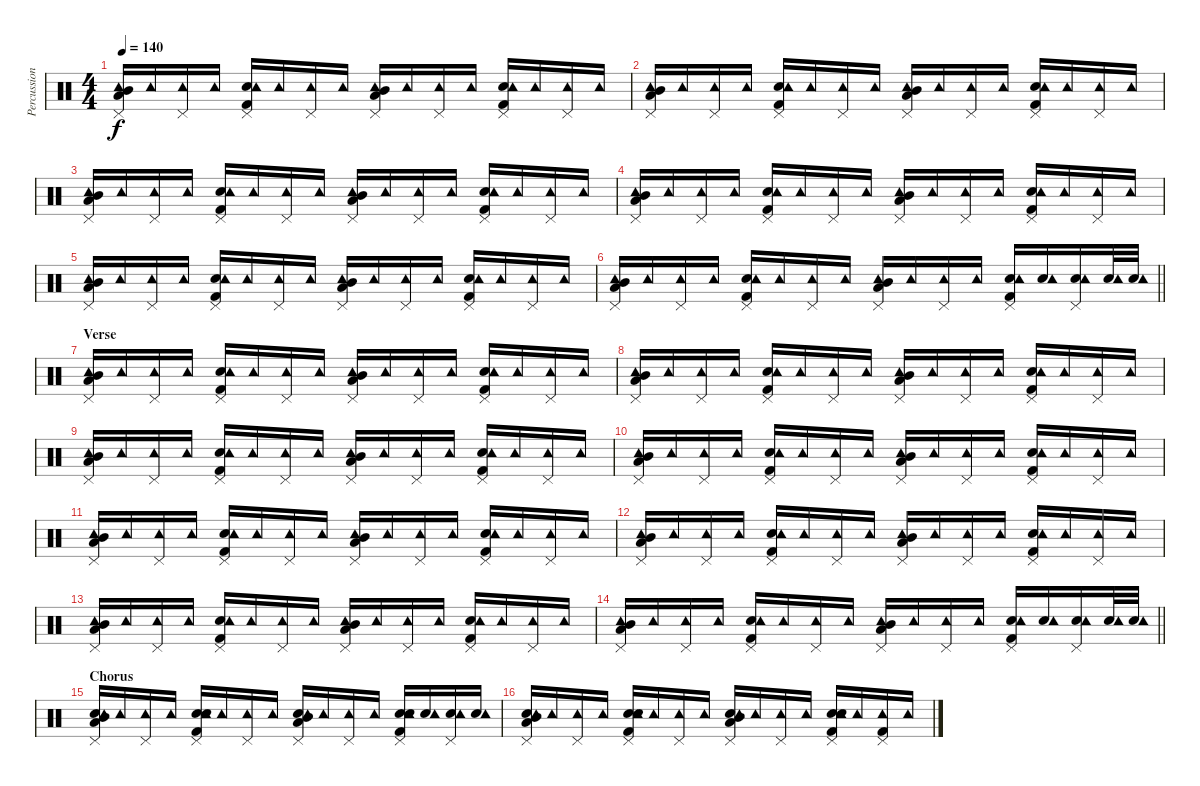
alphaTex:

\track ("Percussion" "Percussion") {instrument percussion}
\staff {score}
\articulation defaults
\ts (4 4)
\tempo 140
\clef neutral
\ks c
("Low Tom (hit)" "Mid Tom (hit)" "Pedal Hi-Hat (hit)" "Tambourine (hit)").16{dy f} "Tambourine (hit)".16 ("Pedal Hi-Hat (hit)" "Tambourine (hit)").16 "Tambourine (hit)".16 ("Snare (hit) 2" "Kick (hit) 2" "Pedal Hi-Hat (hit)" "Tambourine (hit)").16 "Tambourine (hit)".16 ("Pedal Hi-Hat (hit)" "Tambourine (hit)").16 "Tambourine (hit)".16 ("Low Tom (hit)" "Mid Tom (hit)" "Pedal Hi-Hat (hit)" "Tambourine (hit)").16 "Tambourine (hit)".16 ("Pedal Hi-Hat (hit)" "Tambourine (hit)").16 "Tambourine (hit)".16 ("Snare (hit) 2" "Kick (hit) 2" "Pedal Hi-Hat (hit)" "Tambourine (hit)").16 "Tambourine (hit)".16 ("Pedal Hi-Hat (hit)" "Tambourine (hit)").16 "Tambourine (hit)".16 |
("Low Tom (hit)" "Mid Tom (hit)" "Pedal Hi-Hat (hit)" "Tambourine (hit)").16 "Tambourine (hit)".16 ("Pedal Hi-Hat (hit)" "Tambourine (hit)").16 "Tambourine (hit)".16 ("Snare (hit) 2" "Kick (hit) 2" "Pedal Hi-Hat (hit)" "Tambourine (hit)").16 "Tambourine (hit)".16 ("Pedal Hi-Hat (hit)" "Tambourine (hit)").16 "Tambourine (hit)".16 ("Low Tom (hit)" "Mid Tom (hit)" "Pedal Hi-Hat (hit)" "Tambourine (hit)").16 "Tambourine (hit)".16 ("Pedal Hi-Hat (hit)" "Tambourine (hit)").16 "Tambourine (hit)".16 ("Snare (hit) 2" "Kick (hit) 2" "Pedal Hi-Hat (hit)" "Tambourine (hit)").16 "Tambourine (hit)".16 ("Pedal Hi-Hat (hit)" "Tambourine (hit)").16 "Tambourine (hit)".16 |
("Low Tom (hit)" "Mid Tom (hit)" "Pedal Hi-Hat (hit)" "Tambourine (hit)").16 "Tambourine (hit)".16 ("Pedal Hi-Hat (hit)" "Tambourine (hit)").16 "Tambourine (hit)".16 ("Snare (hit) 2" "Kick (hit) 2" "Pedal Hi-Hat (hit)" "Tambourine (hit)").16 "Tambourine (hit)".16 ("Pedal Hi-Hat (hit)" "Tambourine (hit)").16 "Tambourine (hit)".16 ("Low Tom (hit)" "Mid Tom (hit)" "Pedal Hi-Hat (hit)" "Tambourine (hit)").16 "Tambourine (hit)".16 ("Pedal Hi-Hat (hit)" "Tambourine (hit)").16 "Tambourine (hit)".16 ("Snare (hit) 2" "Kick (hit) 2" "Pedal Hi-Hat (hit)" "Tambourine (hit)").16 "Tambourine (hit)".16 ("Pedal Hi-Hat (hit)" "Tambourine (hit)").16 "Tambourine (hit)".16 |
("Low Tom (hit)" "Mid Tom (hit)" "Pedal Hi-Hat (hit)" "Tambourine (hit)").16 "Tambourine (hit)".16 ("Pedal Hi-Hat (hit)" "Tambourine (hit)").16 "Tambourine (hit)".16 ("Snare (hit) 2" "Kick (hit) 2" "Pedal Hi-Hat (hit)" "Tambourine (hit)").16 "Tambourine (hit)".16 ("Pedal Hi-Hat (hit)" "Tambourine (hit)").16 "Tambourine (hit)".16 ("Low Tom (hit)" "Mid Tom (hit)" "Pedal Hi-Hat (hit)" "Tambourine (hit)").16 "Tambourine (hit)".16 ("Pedal Hi-Hat (hit)" "Tambourine (hit)").16 "Tambourine (hit)".16 ("Snare (hit) 2" "Kick (hit) 2" "Pedal Hi-Hat (hit)" "Tambourine (hit)").16 "Tambourine (hit)".16 ("Pedal Hi-Hat (hit)" "Tambourine (hit)").16 "Tambourine (hit)".16 |
("Low Tom (hit)" "Mid Tom (hit)" "Pedal Hi-Hat (hit)" "Tambourine (hit)").16 "Tambourine (hit)".16 ("Pedal Hi-Hat (hit)" "Tambourine (hit)").16 "Tambourine (hit)".16 ("Snare (hit) 2" "Kick (hit) 2" "Pedal Hi-Hat (hit)" "Tambourine (hit)").16 "Tambourine (hit)".16 ("Pedal Hi-Hat (hit)" "Tambourine (hit)").16 "Tambourine (hit)".16 ("Low Tom (hit)" "Mid Tom (hit)" "Pedal Hi-Hat (hit)" "Tambourine (hit)").16 "Tambourine (hit)".16 ("Pedal Hi-Hat (hit)" "Tambourine (hit)").16 "Tambourine (hit)".16 ("Snare (hit) 2" "Kick (hit) 2" "Pedal Hi-Hat (hit)" "Tambourine (hit)").16 "Tambourine (hit)".16 ("Pedal Hi-Hat (hit)" "Tambourine (hit)").16 "Tambourine (hit)".16 |
\barLineRight lightlight
("Low Tom (hit)" "Mid Tom (hit)" "Pedal Hi-Hat (hit)" "Tambourine (hit)").16 "Tambourine (hit)".16 ("Pedal Hi-Hat (hit)" "Tambourine (hit)").16 "Tambourine (hit)".16 ("Snare (hit) 2" "Kick (hit) 2" "Pedal Hi-Hat (hit)" "Tambourine (hit)").16 "Tambourine (hit)".16 ("Pedal Hi-Hat (hit)" "Tambourine (hit)").16 "Tambourine (hit)".16 ("Low Tom (hit)" "Mid Tom (hit)" "Pedal Hi-Hat (hit)" "Tambourine (hit)").16 "Tambourine (hit)".16 ("Pedal Hi-Hat (hit)" "Tambourine (hit)").16 "Tambourine (hit)".16 ("Snare (hit) 2" "Kick (hit) 2" "Pedal Hi-Hat (hit)" "Tambourine (hit)").16 ("Snare (hit) 2" "Tambourine (hit)").16 ("Snare (hit) 2" "Pedal Hi-Hat (hit)" "Tambourine (hit)").16 ("Snare (hit) 2" "Tambourine (hit)").32 ("Snare (hit) 2" "Tambourine (hit)").32 |
\section ("" "Verse")
("Low Tom (hit)" "Mid Tom (hit)" "Pedal Hi-Hat (hit)" "Tambourine (hit)").16{volume 11} "Tambourine (hit)".16 ("Pedal Hi-Hat (hit)" "Tambourine (hit)").16 "Tambourine (hit)".16 ("Snare (hit) 2" "Kick (hit) 2" "Pedal Hi-Hat (hit)" "Tambourine (hit)").16 "Tambourine (hit)".16 ("Pedal Hi-Hat (hit)" "Tambourine (hit)").16 "Tambourine (hit)".16 ("Low Tom (hit)" "Mid Tom (hit)" "Pedal Hi-Hat (hit)" "Tambourine (hit)").16 "Tambourine (hit)".16 ("Pedal Hi-Hat (hit)" "Tambourine (hit)").16 "Tambourine (hit)".16 ("Snare (hit) 2" "Kick (hit) 2" "Pedal Hi-Hat (hit)" "Tambourine (hit)").16 "Tambourine (hit)".16 ("Pedal Hi-Hat (hit)" "Tambourine (hit)").16 "Tambourine (hit)".16 |
("Low Tom (hit)" "Mid Tom (hit)" "Pedal Hi-Hat (hit)" "Tambourine (hit)").16 "Tambourine (hit)".16 ("Pedal Hi-Hat (hit)" "Tambourine (hit)").16 "Tambourine (hit)".16 ("Snare (hit) 2" "Kick (hit) 2" "Pedal Hi-Hat (hit)" "Tambourine (hit)").16 "Tambourine (hit)".16 ("Pedal Hi-Hat (hit)" "Tambourine (hit)").16 "Tambourine (hit)".16 ("Low Tom (hit)" "Mid Tom (hit)" "Pedal Hi-Hat (hit)" "Tambourine (hit)").16 "Tambourine (hit)".16 ("Pedal Hi-Hat (hit)" "Tambourine (hit)").16 "Tambourine (hit)".16 ("Snare (hit) 2" "Kick (hit) 2" "Pedal Hi-Hat (hit)" "Tambourine (hit)").16 "Tambourine (hit)".16 ("Pedal Hi-Hat (hit)" "Tambourine (hit)").16 "Tambourine (hit)".16 |
("Low Tom (hit)" "Mid Tom (hit)" "Pedal Hi-Hat (hit)" "Tambourine (hit)").16 "Tambourine (hit)".16 ("Pedal Hi-Hat (hit)" "Tambourine (hit)").16 "Tambourine (hit)".16 ("Snare (hit) 2" "Kick (hit) 2" "Pedal Hi-Hat (hit)" "Tambourine (hit)").16 "Tambourine (hit)".16 ("Pedal Hi-Hat (hit)" "Tambourine (hit)").16 "Tambourine (hit)".16 ("Low Tom (hit)" "Mid Tom (hit)" "Pedal Hi-Hat (hit)" "Tambourine (hit)").16 "Tambourine (hit)".16 ("Pedal Hi-Hat (hit)" "Tambourine (hit)").16 "Tambourine (hit)".16 ("Snare (hit) 2" "Kick (hit) 2" "Pedal Hi-Hat (hit)" "Tambourine (hit)").16 "Tambourine (hit)".16 ("Pedal Hi-Hat (hit)" "Tambourine (hit)").16 "Tambourine (hit)".16 |
("Low Tom (hit)" "Mid Tom (hit)" "Pedal Hi-Hat (hit)" "Tambourine (hit)").16 "Tambourine (hit)".16 ("Pedal Hi-Hat (hit)" "Tambourine (hit)").16 "Tambourine (hit)".16 ("Snare (hit) 2" "Kick (hit) 2" "Pedal Hi-Hat (hit)" "Tambourine (hit)").16 "Tambourine (hit)".16 ("Pedal Hi-Hat (hit)" "Tambourine (hit)").16 "Tambourine (hit)".16 ("Low Tom (hit)" "Mid Tom (hit)" "Pedal Hi-Hat (hit)" "Tambourine (hit)").16 "Tambourine (hit)".16 ("Pedal Hi-Hat (hit)" "Tambourine (hit)").16 "Tambourine (hit)".16 ("Snare (hit) 2" "Kick (hit) 2" "Pedal Hi-Hat (hit)" "Tambourine (hit)").16 "Tambourine (hit)".16 ("Pedal Hi-Hat (hit)" "Tambourine (hit)").16 "Tambourine (hit)".16 |
("Low Tom (hit)" "Mid Tom (hit)" "Pedal Hi-Hat (hit)" "Tambourine (hit)").16 "Tambourine (hit)".16 ("Pedal Hi-Hat (hit)" "Tambourine (hit)").16 "Tambourine (hit)".16 ("Snare (hit) 2" "Kick (hit) 2" "Pedal Hi-Hat (hit)" "Tambourine (hit)").16 "Tambourine (hit)".16 ("Pedal Hi-Hat (hit)" "Tambourine (hit)").16 "Tambourine (hit)".16 ("Low Tom (hit)" "Mid Tom (hit)" "Pedal Hi-Hat (hit)" "Tambourine (hit)").16 "Tambourine (hit)".16 ("Pedal Hi-Hat (hit)" "Tambourine (hit)").16 "Tambourine (hit)".16 ("Snare (hit) 2" "Kick (hit) 2" "Pedal Hi-Hat (hit)" "Tambourine (hit)").16 "Tambourine (hit)".16 ("Pedal Hi-Hat (hit)" "Tambourine (hit)").16 "Tambourine (hit)".16 |
("Low Tom (hit)" "Mid Tom (hit)" "Pedal Hi-Hat (hit)" "Tambourine (hit)").16 "Tambourine (hit)".16 ("Pedal Hi-Hat (hit)" "Tambourine (hit)").16 "Tambourine (hit)".16 ("Snare (hit) 2" "Kick (hit) 2" "Pedal Hi-Hat (hit)" "Tambourine (hit)").16 "Tambourine (hit)".16 ("Pedal Hi-Hat (hit)" "Tambourine (hit)").16 "Tambourine (hit)".16 ("Low Tom (hit)" "Mid Tom (hit)" "Pedal Hi-Hat (hit)" "Tambourine (hit)").16 "Tambourine (hit)".16 ("Pedal Hi-Hat (hit)" "Tambourine (hit)").16 "Tambourine (hit)".16 ("Snare (hit) 2" "Kick (hit) 2" "Pedal Hi-Hat (hit)" "Tambourine (hit)").16 "Tambourine (hit)".16 ("Pedal Hi-Hat (hit)" "Tambourine (hit)").16 "Tambourine (hit)".16 |
("Low Tom (hit)" "Mid Tom (hit)" "Pedal Hi-Hat (hit)" "Tambourine (hit)").16 "Tambourine (hit)".16 ("Pedal Hi-Hat (hit)" "Tambourine (hit)").16 "Tambourine (hit)".16 ("Snare (hit) 2" "Kick (hit) 2" "Pedal Hi-Hat (hit)" "Tambourine (hit)").16 "Tambourine (hit)".16 ("Pedal Hi-Hat (hit)" "Tambourine (hit)").16 "Tambourine (hit)".16 ("Low Tom (hit)" "Mid Tom (hit)" "Pedal Hi-Hat (hit)" "Tambourine (hit)").16 "Tambourine (hit)".16 ("Pedal Hi-Hat (hit)" "Tambourine (hit)").16 "Tambourine (hit)".16 ("Snare (hit) 2" "Kick (hit) 2" "Pedal Hi-Hat (hit)" "Tambourine (hit)").16 "Tambourine (hit)".16 ("Pedal Hi-Hat (hit)" "Tambourine (hit)").16 "Tambourine (hit)".16 |
\barLineRight lightlight
("Low Tom (hit)" "Mid Tom (hit)" "Pedal Hi-Hat (hit)" "Tambourine (hit)").16 "Tambourine (hit)".16 ("Pedal Hi-Hat (hit)" "Tambourine (hit)").16 "Tambourine (hit)".16 ("Snare (hit) 2" "Kick (hit) 2" "Pedal Hi-Hat (hit)" "Tambourine (hit)").16 "Tambourine (hit)".16 ("Pedal Hi-Hat (hit)" "Tambourine (hit)").16 "Tambourine (hit)".16 ("Low Tom (hit)" "Mid Tom (hit)" "Pedal Hi-Hat (hit)" "Tambourine (hit)").16 "Tambourine (hit)".16 ("Pedal Hi-Hat (hit)" "Tambourine (hit)").16 "Tambourine (hit)".16 ("Snare (hit) 2" "Kick (hit) 2" "Pedal Hi-Hat (hit)" "Tambourine (hit)").16 ("Snare (hit) 2" "Tambourine (hit)").16 ("Snare (hit) 2" "Pedal Hi-Hat (hit)" "Tambourine (hit)").16 ("Snare (hit) 2" "Tambourine (hit)").32 ("Snare (hit) 2" "Tambourine (hit)").32 |
\section ("" "Chorus")
("Low Tom (hit)" "Mid Tom (hit)" "Electric Snare (hit)" "Pedal Hi-Hat (hit)" "Tambourine (hit)").16{volume 12} "Tambourine (hit)".16 ("Pedal Hi-Hat (hit)" "Tambourine (hit)").16 "Tambourine (hit)".16 ("Snare (hit) 2" "Kick (hit) 2" "Electric Snare (hit)" "Pedal Hi-Hat (hit)" "Tambourine (hit)").16 "Tambourine (hit)".16 ("Pedal Hi-Hat (hit)" "Tambourine (hit)").16 "Tambourine (hit)".16 ("Low Tom (hit)" "Mid Tom (hit)" "Electric Snare (hit)" "Pedal Hi-Hat (hit)" "Tambourine (hit)").16 "Tambourine (hit)".16 ("Pedal Hi-Hat (hit)" "Tambourine (hit)").16 "Tambourine (hit)".16 ("Snare (hit) 2" "Kick (hit) 2" "Electric Snare (hit)" "Pedal Hi-Hat (hit)" "Tambourine (hit)").16 ("Electric Snare (hit)" "Tambourine (hit)").16 ("Electric Snare (hit)" "Pedal Hi-Hat (hit)" "Tambourine (hit)").16 ("Electric Snare (hit)" "Tambourine (hit)").16 |
("Low Tom (hit)" "Mid Tom (hit)" "Electric Snare (hit)" "Pedal Hi-Hat (hit)" "Tambourine (hit)").16 "Tambourine (hit)".16 ("Pedal Hi-Hat (hit)" "Tambourine (hit)").16 "Tambourine (hit)".16 ("Snare (hit) 2" "Kick (hit) 2" "Electric Snare (hit)" "Pedal Hi-Hat (hit)" "Tambourine (hit)").16 "Tambourine (hit)".16 ("Pedal Hi-Hat (hit)" "Tambourine (hit)").16 "Tambourine (hit)".16 ("Low Tom (hit)" "Mid Tom (hit)" "Electric Snare (hit)" "Pedal Hi-Hat (hit)" "Tambourine (hit)").16 "Tambourine (hit)".16 ("Pedal Hi-Hat (hit)" "Tambourine (hit)").16 "Tambourine (hit)".16 ("Snare (hit) 2" "Kick (hit) 2" "Electric Snare (hit)" "Pedal Hi-Hat (hit)" "Tambourine (hit)").16 "Tambourine (hit)".16 ("Kick (hit) 2" "Pedal Hi-Hat (hit)" "Tambourine (hit)").16 "Tambourine (hit)".16
